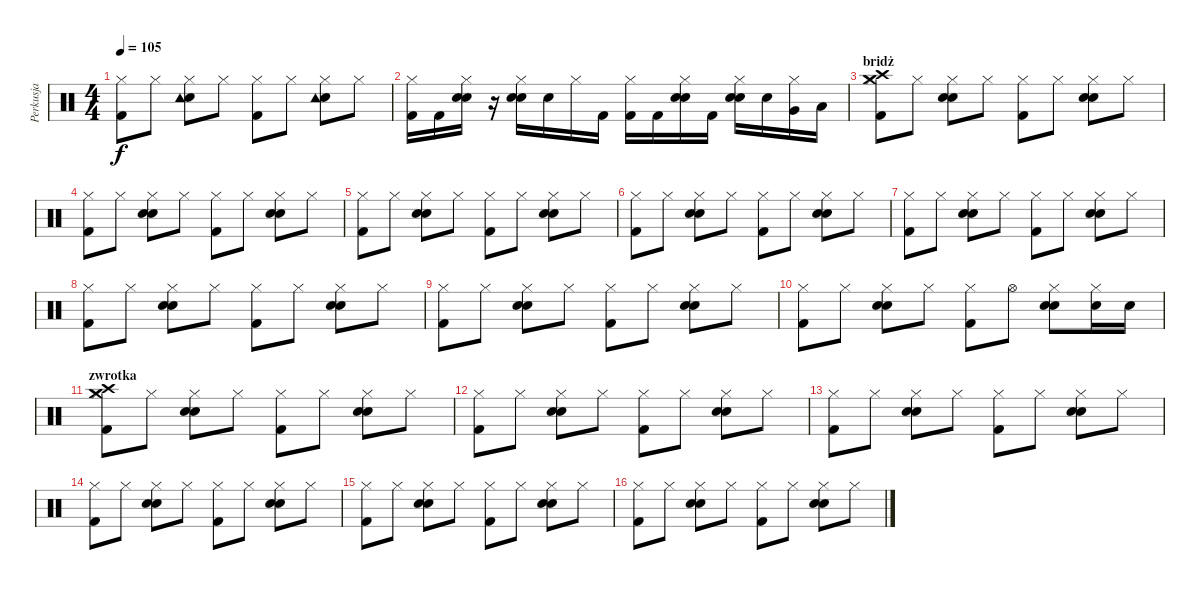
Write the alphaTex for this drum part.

\track ("Perkusja" "Perkusja") {instrument percussion}
\staff {score}
\articulation defaults
\ts (4 4)
\tempo 105
\clef neutral
\ks c
("Kick (hit) 2" "Hi-Hat (closed)").8{dy f} "Hi-Hat (closed)".8 ("Electric Snare (hit)" "Tambourine (hit)" "Hi-Hat (closed)").8 "Hi-Hat (closed)".8 ("Kick (hit) 2" "Hi-Hat (closed)").8 "Hi-Hat (closed)".8 ("Electric Snare (hit)" "Tambourine (hit)" "Hi-Hat (closed)").8 "Hi-Hat (closed)".8 |
("Kick (hit) 2" "Hi-Hat (closed)").16 "Kick (hit) 2".16 ("Electric Snare (hit)" "Snare (hit) 2" "Hi-Hat (closed)").16 r.16 ("Electric Snare (hit)" "Snare (hit) 2" "Hi-Hat (closed)").16 "Electric Snare (hit)".16 "Hi-Hat (closed)".16 "Kick (hit) 2".16 ("Kick (hit) 2" "Hi-Hat (closed)").16 "Kick (hit) 2".16 ("Electric Snare (hit)" "Snare (hit) 2" "Hi-Hat (closed)").16 "Kick (hit) 2".16 ("Electric Snare (hit)" "Snare (hit) 2" "Hi-Hat (closed)").16 "Electric Snare (hit)".16 ("Very Low Tom (hit)" "Hi-Hat (closed)").16 "Low Floor Tom (hit)".16 |
\section ("" "bridż")
("Crash medium (hit)" "Crash high (hit)" "Kick (hit) 2" "Hi-Hat (closed)").8 "Hi-Hat (closed)".8 ("Electric Snare (hit)" "Snare (hit) 2" "Hi-Hat (closed)").8 "Hi-Hat (closed)".8 ("Kick (hit) 2" "Hi-Hat (closed)").8 "Hi-Hat (closed)".8 ("Electric Snare (hit)" "Snare (hit) 2" "Hi-Hat (closed)").8 "Hi-Hat (closed)".8 |
("Kick (hit) 2" "Hi-Hat (closed)").8 "Hi-Hat (closed)".8 ("Electric Snare (hit)" "Snare (hit) 2" "Hi-Hat (closed)").8 "Hi-Hat (closed)".8 ("Kick (hit) 2" "Hi-Hat (closed)").8 "Hi-Hat (closed)".8 ("Electric Snare (hit)" "Snare (hit) 2" "Hi-Hat (closed)").8 "Hi-Hat (closed)".8 |
("Kick (hit) 2" "Hi-Hat (closed)").8 "Hi-Hat (closed)".8 ("Electric Snare (hit)" "Snare (hit) 2" "Hi-Hat (closed)").8 "Hi-Hat (closed)".8 ("Kick (hit) 2" "Hi-Hat (closed)").8 "Hi-Hat (closed)".8 ("Electric Snare (hit)" "Snare (hit) 2" "Hi-Hat (closed)").8 "Hi-Hat (closed)".8 |
("Kick (hit) 2" "Hi-Hat (closed)").8 "Hi-Hat (closed)".8 ("Electric Snare (hit)" "Snare (hit) 2" "Hi-Hat (closed)").8 "Hi-Hat (closed)".8 ("Kick (hit) 2" "Hi-Hat (closed)").8 "Hi-Hat (closed)".8 ("Electric Snare (hit)" "Snare (hit) 2" "Hi-Hat (closed)").8 "Hi-Hat (closed)".8 |
("Kick (hit) 2" "Hi-Hat (closed)").8 "Hi-Hat (closed)".8 ("Electric Snare (hit)" "Snare (hit) 2" "Hi-Hat (closed)").8 "Hi-Hat (closed)".8 ("Kick (hit) 2" "Hi-Hat (closed)").8 "Hi-Hat (closed)".8 ("Electric Snare (hit)" "Snare (hit) 2" "Hi-Hat (closed)").8 "Hi-Hat (closed)".8 |
("Kick (hit) 2" "Hi-Hat (closed)").8 "Hi-Hat (closed)".8 ("Electric Snare (hit)" "Snare (hit) 2" "Hi-Hat (closed)").8 "Hi-Hat (closed)".8 ("Kick (hit) 2" "Hi-Hat (closed)").8 "Hi-Hat (closed)".8 ("Electric Snare (hit)" "Snare (hit) 2" "Hi-Hat (closed)").8 "Hi-Hat (closed)".8 |
("Kick (hit) 2" "Hi-Hat (closed)").8 "Hi-Hat (closed)".8 ("Electric Snare (hit)" "Snare (hit) 2" "Hi-Hat (closed)").8 "Hi-Hat (closed)".8 ("Kick (hit) 2" "Hi-Hat (closed)").8 "Hi-Hat (closed)".8 ("Electric Snare (hit)" "Snare (hit) 2" "Hi-Hat (closed)").8 "Hi-Hat (closed)".8 |
("Kick (hit) 2" "Hi-Hat (closed)").8 "Hi-Hat (closed)".8 ("Electric Snare (hit)" "Snare (hit) 2" "Hi-Hat (closed)").8 "Hi-Hat (closed)".8 ("Kick (hit) 2" "Hi-Hat (closed)").8 "Hi-Hat (open)".8 ("Electric Snare (hit)" "Snare (hit) 2" "Hi-Hat (closed)").8 ("Electric Snare (hit)" "Hi-Hat (closed)").16 "Electric Snare (hit)".16 |
\section ("" "zwrotka")
("Crash medium (hit)" "Crash high (hit)" "Kick (hit) 2" "Hi-Hat (closed)").8 "Hi-Hat (closed)".8 ("Electric Snare (hit)" "Snare (hit) 2" "Hi-Hat (closed)").8 "Hi-Hat (closed)".8 ("Kick (hit) 2" "Hi-Hat (closed)").8 "Hi-Hat (closed)".8 ("Electric Snare (hit)" "Snare (hit) 2" "Hi-Hat (closed)").8 "Hi-Hat (closed)".8 |
("Kick (hit) 2" "Hi-Hat (closed)").8 "Hi-Hat (closed)".8 ("Electric Snare (hit)" "Snare (hit) 2" "Hi-Hat (closed)").8 "Hi-Hat (closed)".8 ("Kick (hit) 2" "Hi-Hat (closed)").8 "Hi-Hat (closed)".8 ("Electric Snare (hit)" "Snare (hit) 2" "Hi-Hat (closed)").8 "Hi-Hat (closed)".8 |
("Kick (hit) 2" "Hi-Hat (closed)").8 "Hi-Hat (closed)".8 ("Electric Snare (hit)" "Snare (hit) 2" "Hi-Hat (closed)").8 "Hi-Hat (closed)".8 ("Kick (hit) 2" "Hi-Hat (closed)").8 "Hi-Hat (closed)".8 ("Electric Snare (hit)" "Snare (hit) 2" "Hi-Hat (closed)").8 "Hi-Hat (closed)".8 |
("Kick (hit) 2" "Hi-Hat (closed)").8 "Hi-Hat (closed)".8 ("Electric Snare (hit)" "Snare (hit) 2" "Hi-Hat (closed)").8 "Hi-Hat (closed)".8 ("Kick (hit) 2" "Hi-Hat (closed)").8 "Hi-Hat (closed)".8 ("Electric Snare (hit)" "Snare (hit) 2" "Hi-Hat (closed)").8 "Hi-Hat (closed)".8 |
("Kick (hit) 2" "Hi-Hat (closed)").8 "Hi-Hat (closed)".8 ("Electric Snare (hit)" "Snare (hit) 2" "Hi-Hat (closed)").8 "Hi-Hat (closed)".8 ("Kick (hit) 2" "Hi-Hat (closed)").8 "Hi-Hat (closed)".8 ("Electric Snare (hit)" "Snare (hit) 2" "Hi-Hat (closed)").8 "Hi-Hat (closed)".8 |
("Kick (hit) 2" "Hi-Hat (closed)").8 "Hi-Hat (closed)".8 ("Electric Snare (hit)" "Snare (hit) 2" "Hi-Hat (closed)").8 "Hi-Hat (closed)".8 ("Kick (hit) 2" "Hi-Hat (closed)").8 "Hi-Hat (closed)".8 ("Electric Snare (hit)" "Snare (hit) 2" "Hi-Hat (closed)").8 "Hi-Hat (closed)".8
